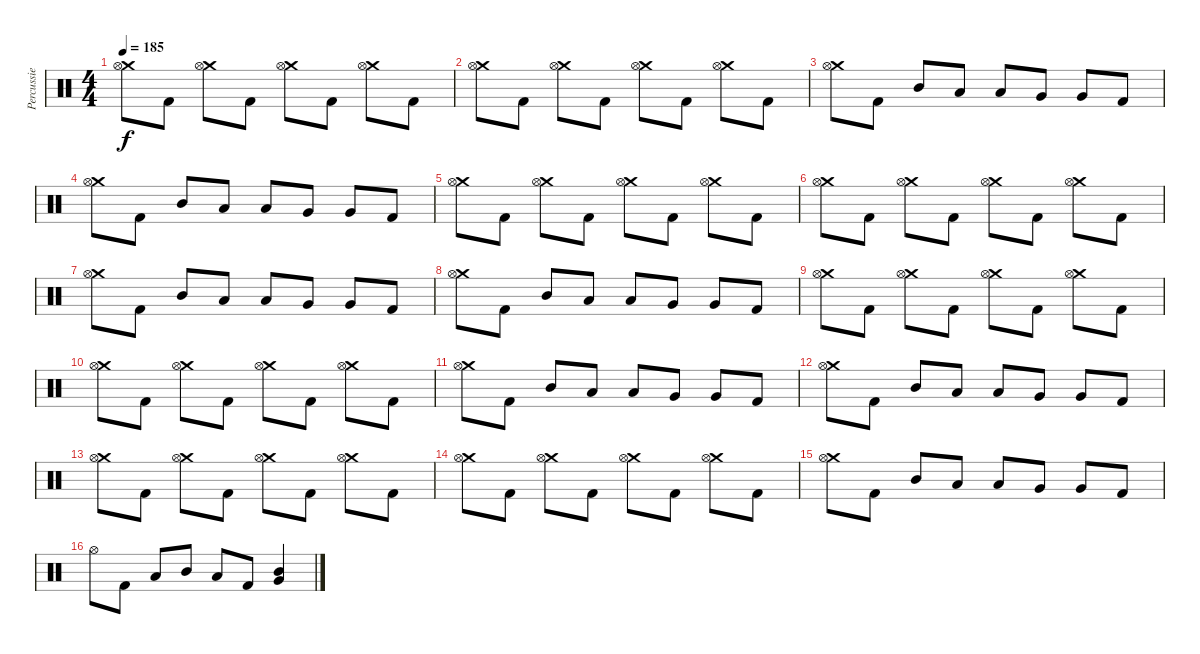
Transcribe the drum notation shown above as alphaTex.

\track ("Percussie" "Percussie") {instrument percussion}
\staff {score}
\articulation defaults
\ts (4 4)
\tempo 185
\clef neutral
\ks c
("Crash medium (hit)" "Hi-Hat (open)").8{dy f} "Kick (hit) 2".8 ("Crash medium (hit)" "Hi-Hat (open)").8 "Kick (hit) 2".8 ("Crash medium (hit)" "Hi-Hat (open)").8 "Kick (hit) 2".8 ("Crash medium (hit)" "Hi-Hat (open)").8 "Kick (hit) 2".8 |
("Crash medium (hit)" "Hi-Hat (open)").8 "Kick (hit) 2".8 ("Crash medium (hit)" "Hi-Hat (open)").8 "Kick (hit) 2".8 ("Crash medium (hit)" "Hi-Hat (open)").8 "Kick (hit) 2".8 ("Crash medium (hit)" "Hi-Hat (open)").8 "Kick (hit) 2".8 |
("Crash medium (hit)" "Hi-Hat (open)").8 "Kick (hit) 2".8 "Mid Tom (hit)".8 "Low Tom (hit)".8 "Low Tom (hit)".8 "Very Low Tom (hit)".8 "Very Low Tom (hit)".8 "Kick (hit) 2".8 |
("Crash medium (hit)" "Hi-Hat (open)").8 "Kick (hit) 2".8 "Mid Tom (hit)".8 "Low Tom (hit)".8 "Low Tom (hit)".8 "Very Low Tom (hit)".8 "Very Low Tom (hit)".8 "Kick (hit) 2".8 |
("Crash medium (hit)" "Hi-Hat (open)").8 "Kick (hit) 2".8 ("Crash medium (hit)" "Hi-Hat (open)").8 "Kick (hit) 2".8 ("Crash medium (hit)" "Hi-Hat (open)").8 "Kick (hit) 2".8 ("Crash medium (hit)" "Hi-Hat (open)").8 "Kick (hit) 2".8 |
("Crash medium (hit)" "Hi-Hat (open)").8 "Kick (hit) 2".8 ("Crash medium (hit)" "Hi-Hat (open)").8 "Kick (hit) 2".8 ("Crash medium (hit)" "Hi-Hat (open)").8 "Kick (hit) 2".8 ("Crash medium (hit)" "Hi-Hat (open)").8 "Kick (hit) 2".8 |
("Crash medium (hit)" "Hi-Hat (open)").8 "Kick (hit) 2".8 "Mid Tom (hit)".8 "Low Tom (hit)".8 "Low Tom (hit)".8 "Very Low Tom (hit)".8 "Very Low Tom (hit)".8 "Kick (hit) 2".8 |
("Crash medium (hit)" "Hi-Hat (open)").8 "Kick (hit) 2".8 "Mid Tom (hit)".8 "Low Tom (hit)".8 "Low Tom (hit)".8 "Very Low Tom (hit)".8 "Very Low Tom (hit)".8 "Kick (hit) 2".8 |
("Crash medium (hit)" "Hi-Hat (open)").8 "Kick (hit) 2".8 ("Crash medium (hit)" "Hi-Hat (open)").8 "Kick (hit) 2".8 ("Crash medium (hit)" "Hi-Hat (open)").8 "Kick (hit) 2".8 ("Crash medium (hit)" "Hi-Hat (open)").8 "Kick (hit) 2".8 |
("Crash medium (hit)" "Hi-Hat (open)").8 "Kick (hit) 2".8 ("Crash medium (hit)" "Hi-Hat (open)").8 "Kick (hit) 2".8 ("Crash medium (hit)" "Hi-Hat (open)").8 "Kick (hit) 2".8 ("Crash medium (hit)" "Hi-Hat (open)").8 "Kick (hit) 2".8 |
("Crash medium (hit)" "Hi-Hat (open)").8 "Kick (hit) 2".8 "Mid Tom (hit)".8 "Low Tom (hit)".8 "Low Tom (hit)".8 "Very Low Tom (hit)".8 "Very Low Tom (hit)".8 "Kick (hit) 2".8 |
("Crash medium (hit)" "Hi-Hat (open)").8 "Kick (hit) 2".8 "Mid Tom (hit)".8 "Low Tom (hit)".8 "Low Tom (hit)".8 "Very Low Tom (hit)".8 "Very Low Tom (hit)".8 "Kick (hit) 2".8 |
("Crash medium (hit)" "Hi-Hat (open)").8 "Kick (hit) 2".8 ("Crash medium (hit)" "Hi-Hat (open)").8 "Kick (hit) 2".8 ("Crash medium (hit)" "Hi-Hat (open)").8 "Kick (hit) 2".8 ("Crash medium (hit)" "Hi-Hat (open)").8 "Kick (hit) 2".8 |
("Crash medium (hit)" "Hi-Hat (open)").8 "Kick (hit) 2".8 ("Crash medium (hit)" "Hi-Hat (open)").8 "Kick (hit) 2".8 ("Crash medium (hit)" "Hi-Hat (open)").8 "Kick (hit) 2".8 ("Crash medium (hit)" "Hi-Hat (open)").8 "Kick (hit) 2".8 |
("Crash medium (hit)" "Hi-Hat (open)").8 "Kick (hit) 2".8 "Mid Tom (hit)".8 "Low Tom (hit)".8 "Low Tom (hit)".8 "Very Low Tom (hit)".8 "Very Low Tom (hit)".8 "Kick (hit) 2".8 |
"Hi-Hat (open)".8 "Kick (hit) 2".8 "Low Tom (hit)".8 "Mid Tom (hit)".8 "Low Tom (hit)".8 "Kick (hit) 2".8 ("Mid Tom (hit)" "Very Low Tom (hit)").4
